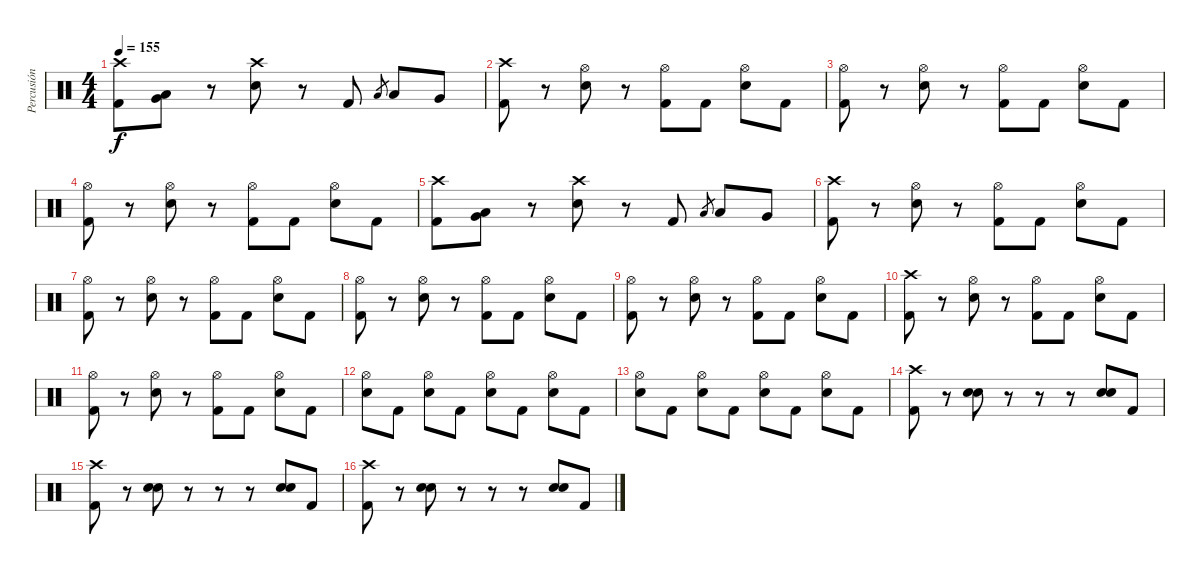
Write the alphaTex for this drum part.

\track ("Percusión" "Percusión") {instrument percussion}
\staff {score}
\articulation defaults
\ts (4 4)
\tempo 155
\clef neutral
\ks c
("Crash high (hit)" "Kick (hit) 2").8{dy f} ("Very Low Tom (hit)" "Low Tom (hit)").8 r.8 ("Crash high (hit)" "Electric Snare (hit)").8 r.8 "Kick (hit) 2".8 "Low Tom (hit)".8{gr} "Low Tom (hit)".8 "Very Low Tom (hit)".8 |
("Crash high (hit)" "Kick (hit) 2").8 r.8 ("Hi-Hat (open)" "Electric Snare (hit)").8 r.8 ("Hi-Hat (open)" "Kick (hit) 2").8 "Kick (hit) 2".8 ("Hi-Hat (open)" "Electric Snare (hit)").8 "Kick (hit) 2".8 |
("Hi-Hat (open)" "Kick (hit) 2").8 r.8 ("Hi-Hat (open)" "Electric Snare (hit)").8 r.8 ("Hi-Hat (open)" "Kick (hit) 2").8 "Kick (hit) 2".8 ("Hi-Hat (open)" "Electric Snare (hit)").8 "Kick (hit) 2".8 |
("Hi-Hat (open)" "Kick (hit) 2").8 r.8 ("Hi-Hat (open)" "Electric Snare (hit)").8 r.8 ("Hi-Hat (open)" "Kick (hit) 2").8 "Kick (hit) 2".8 ("Hi-Hat (open)" "Electric Snare (hit)").8 "Kick (hit) 2".8 |
("Crash high (hit)" "Kick (hit) 2").8 ("Very Low Tom (hit)" "Low Tom (hit)").8 r.8 ("Crash high (hit)" "Electric Snare (hit)").8 r.8 "Kick (hit) 2".8 "Low Tom (hit)".8{gr} "Low Tom (hit)".8 "Very Low Tom (hit)".8 |
("Crash high (hit)" "Kick (hit) 2").8 r.8 ("Hi-Hat (open)" "Electric Snare (hit)").8 r.8 ("Hi-Hat (open)" "Kick (hit) 2").8 "Kick (hit) 2".8 ("Hi-Hat (open)" "Electric Snare (hit)").8 "Kick (hit) 2".8 |
("Hi-Hat (open)" "Kick (hit) 2").8 r.8 ("Hi-Hat (open)" "Electric Snare (hit)").8 r.8 ("Hi-Hat (open)" "Kick (hit) 2").8 "Kick (hit) 2".8 ("Hi-Hat (open)" "Electric Snare (hit)").8 "Kick (hit) 2".8 |
("Hi-Hat (open)" "Kick (hit) 2").8 r.8 ("Hi-Hat (open)" "Electric Snare (hit)").8 r.8 ("Hi-Hat (open)" "Kick (hit) 2").8 "Kick (hit) 2".8 ("Hi-Hat (open)" "Electric Snare (hit)").8 "Kick (hit) 2".8 |
("Hi-Hat (open)" "Kick (hit) 2").8 r.8 ("Hi-Hat (open)" "Electric Snare (hit)").8 r.8 ("Hi-Hat (open)" "Kick (hit) 2").8 "Kick (hit) 2".8 ("Hi-Hat (open)" "Electric Snare (hit)").8 "Kick (hit) 2".8 |
("Crash high (hit)" "Kick (hit) 2").8 r.8 ("Hi-Hat (open)" "Electric Snare (hit)").8 r.8 ("Hi-Hat (open)" "Kick (hit) 2").8 "Kick (hit) 2".8 ("Hi-Hat (open)" "Electric Snare (hit)").8 "Kick (hit) 2".8 |
("Hi-Hat (open)" "Kick (hit) 2").8 r.8 ("Hi-Hat (open)" "Electric Snare (hit)").8 r.8 ("Hi-Hat (open)" "Kick (hit) 2").8 "Kick (hit) 2".8 ("Hi-Hat (open)" "Electric Snare (hit)").8 "Kick (hit) 2".8 |
("Hi-Hat (open)" "Electric Snare (hit)").8 "Kick (hit) 2".8 ("Hi-Hat (open)" "Electric Snare (hit)").8 "Kick (hit) 2".8 ("Hi-Hat (open)" "Electric Snare (hit)").8 "Kick (hit) 2".8 ("Hi-Hat (open)" "Electric Snare (hit)").8 "Kick (hit) 2".8 |
("Hi-Hat (open)" "Electric Snare (hit)").8 "Kick (hit) 2".8 ("Hi-Hat (open)" "Electric Snare (hit)").8 "Kick (hit) 2".8 ("Hi-Hat (open)" "Electric Snare (hit)").8 "Kick (hit) 2".8 ("Hi-Hat (open)" "Electric Snare (hit)").8 "Kick (hit) 2".8 |
("Crash high (hit)" "Kick (hit) 2").8 r.8 ("Electric Snare (hit)" "Electric Snare (hit)").8 r.8 r.8 r.8 ("Electric Snare (hit)" "Electric Snare (hit)").8 "Kick (hit) 2".8 |
("Crash high (hit)" "Kick (hit) 2").8 r.8 ("Electric Snare (hit)" "Electric Snare (hit)").8 r.8 r.8 r.8 ("Electric Snare (hit)" "Electric Snare (hit)").8 "Kick (hit) 2".8 |
("Crash high (hit)" "Kick (hit) 2").8 r.8 ("Electric Snare (hit)" "Electric Snare (hit)").8 r.8 r.8 r.8 ("Electric Snare (hit)" "Electric Snare (hit)").8 "Kick (hit) 2".8
